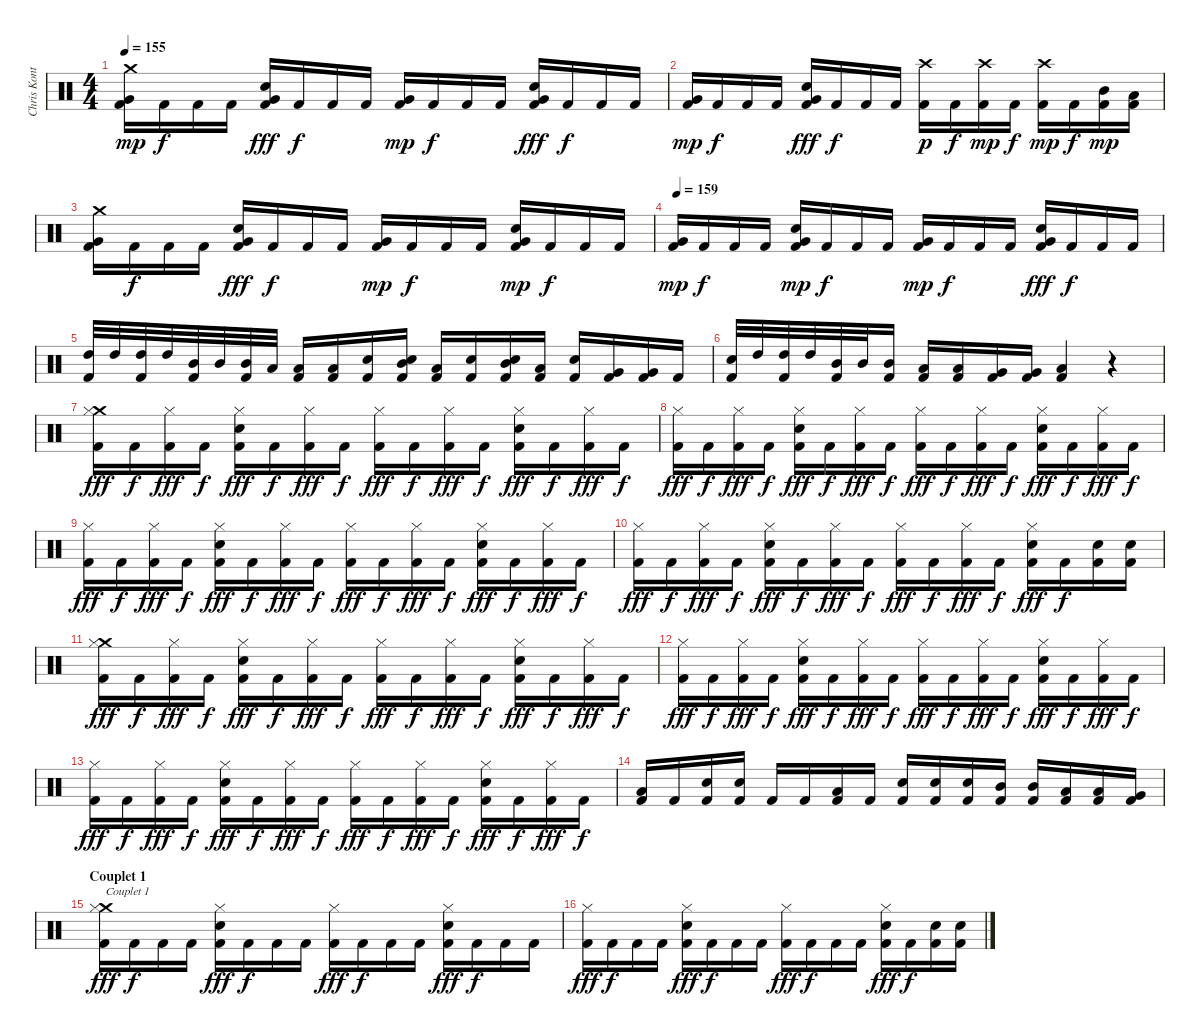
\track ("Chris Kontos" "Chris Kont") {instrument percussion}
\staff {score}
\articulation defaults
\ts (4 4)
\tempo 155
\clef neutral
\ks c
("Crash medium (hit)" "Very Low Tom (hit)" "Kick (hit) 2").16{dy mp} "Kick (hit) 2".16{dy f} "Kick (hit) 2".16 "Kick (hit) 2".16 ("Very Low Tom (hit)" "Electric Snare (hit)" "Kick (hit) 2").16{dy fff} "Kick (hit) 2".16{dy f} "Kick (hit) 2".16 "Kick (hit) 2".16 ("Very Low Tom (hit)" "Kick (hit) 2").16{dy mp} "Kick (hit) 2".16{dy f} "Kick (hit) 2".16 "Kick (hit) 2".16 ("Very Low Tom (hit)" "Electric Snare (hit)" "Kick (hit) 2").16{dy fff} "Kick (hit) 2".16{dy f} "Kick (hit) 2".16 "Kick (hit) 2".16 |
("Very Low Tom (hit)" "Kick (hit) 2").16{dy mp} "Kick (hit) 2".16{dy f} "Kick (hit) 2".16 "Kick (hit) 2".16 ("Very Low Tom (hit)" "Electric Snare (hit)" "Kick (hit) 2").16{dy fff} "Kick (hit) 2".16{dy f} "Kick (hit) 2".16 "Kick (hit) 2".16 ("Crash high (hit)" "Kick (hit) 2").16{dy p} "Kick (hit) 2".16{dy f} ("Crash high (hit)" "Kick (hit) 2").16{dy mp} "Kick (hit) 2".16{dy f} ("Crash high (hit)" "Kick (hit) 2").16{dy mp} "Kick (hit) 2".16{dy f} ("Mid Tom (hit)" "Kick (hit) 2").16{dy mp} ("Low Tom (hit)" "Kick (hit) 2").16 |
("Crash medium (hit)" "Very Low Tom (hit)" "Kick (hit) 2").16 "Kick (hit) 2".16{dy f} "Kick (hit) 2".16 "Kick (hit) 2".16 ("Very Low Tom (hit)" "Electric Snare (hit)" "Kick (hit) 2").16{dy fff} "Kick (hit) 2".16{dy f} "Kick (hit) 2".16 "Kick (hit) 2".16 ("Very Low Tom (hit)" "Kick (hit) 2").16{dy mp} "Kick (hit) 2".16{dy f} "Kick (hit) 2".16 "Kick (hit) 2".16 ("Very Low Tom (hit)" "Electric Snare (hit)" "Kick (hit) 2").16{dy mp} "Kick (hit) 2".16{dy f} "Kick (hit) 2".16 "Kick (hit) 2".16 |
\tempo 159
("Very Low Tom (hit)" "Kick (hit) 2").16{dy mp} "Kick (hit) 2".16{dy f} "Kick (hit) 2".16 "Kick (hit) 2".16 ("Very Low Tom (hit)" "Electric Snare (hit)" "Kick (hit) 2").16{dy mp} "Kick (hit) 2".16{dy f} "Kick (hit) 2".16 "Kick (hit) 2".16 ("Very Low Tom (hit)" "Kick (hit) 2").16{dy mp} "Kick (hit) 2".16{dy f} "Kick (hit) 2".16 "Kick (hit) 2".16 ("Very Low Tom (hit)" "Electric Snare (hit)" "Kick (hit) 2").16{dy fff} "Kick (hit) 2".16{dy f} "Kick (hit) 2".16 "Kick (hit) 2".16 |
("High Tom (hit)" "Kick (hit) 2").32 "High Tom (hit)".32 ("High Tom (hit)" "Kick (hit) 2").32 "High Tom (hit)".32 ("Mid Tom (hit)" "Kick (hit) 2").32 "Mid Tom (hit)".32 ("Mid Tom (hit)" "Kick (hit) 2").32 "Low Tom (hit)".32 ("Low Tom (hit)" "Kick (hit) 2").16 ("Low Tom (hit)" "Kick (hit) 2").16 ("Electric Snare (hit)" "Kick (hit) 2").16 ("Mid Tom (hit)" "Electric Snare (hit)" "Kick (hit) 2").16 ("Low Tom (hit)" "Kick (hit) 2").16 ("Electric Snare (hit)" "Kick (hit) 2").16 ("Mid Tom (hit)" "Electric Snare (hit)" "Kick (hit) 2").16 ("Low Tom (hit)" "Kick (hit) 2").16 ("Electric Snare (hit)" "Kick (hit) 2").16 ("Very Low Tom (hit)" "Kick (hit) 2").16 ("Very Low Tom (hit)" "Kick (hit) 2").16 "Kick (hit) 2".16 |
("Electric Snare (hit)" "Kick (hit) 2").32 "High Tom (hit)".32 ("High Tom (hit)" "Kick (hit) 2").32 "High Tom (hit)".32 ("Mid Tom (hit)" "Kick (hit) 2").32 "Mid Tom (hit)".32 ("Mid Tom (hit)" "Kick (hit) 2").16 ("Low Tom (hit)" "Kick (hit) 2").16 ("Low Tom (hit)" "Kick (hit) 2").16 ("Very Low Tom (hit)" "Kick (hit) 2").16 ("Very Low Tom (hit)" "Kick (hit) 2").16 ("Low Floor Tom (hit)" "Kick (hit) 2").4 r.4 |
("Crash medium (hit)" "Hi-Hat (closed)" "Kick (hit) 2").16{dy fff} "Kick (hit) 2".16{dy f} ("Hi-Hat (closed)" "Kick (hit) 2").16{dy fff} "Kick (hit) 2".16{dy f} ("Electric Snare (hit)" "Hi-Hat (closed)" "Kick (hit) 2").16{dy fff} "Kick (hit) 2".16{dy f} ("Hi-Hat (closed)" "Kick (hit) 2").16{dy fff} "Kick (hit) 2".16{dy f} ("Hi-Hat (closed)" "Kick (hit) 2").16{dy fff} "Kick (hit) 2".16{dy f} ("Hi-Hat (closed)" "Kick (hit) 2").16{dy fff} "Kick (hit) 2".16{dy f} ("Electric Snare (hit)" "Hi-Hat (closed)" "Kick (hit) 2").16{dy fff} "Kick (hit) 2".16{dy f} ("Hi-Hat (closed)" "Kick (hit) 2").16{dy fff} "Kick (hit) 2".16{dy f} |
("Hi-Hat (closed)" "Kick (hit) 2").16{dy fff} "Kick (hit) 2".16{dy f} ("Hi-Hat (closed)" "Kick (hit) 2").16{dy fff} "Kick (hit) 2".16{dy f} ("Electric Snare (hit)" "Hi-Hat (closed)" "Kick (hit) 2").16{dy fff} "Kick (hit) 2".16{dy f} ("Hi-Hat (closed)" "Kick (hit) 2").16{dy fff} "Kick (hit) 2".16{dy f} ("Hi-Hat (closed)" "Kick (hit) 2").16{dy fff} "Kick (hit) 2".16{dy f} ("Hi-Hat (closed)" "Kick (hit) 2").16{dy fff} "Kick (hit) 2".16{dy f} ("Electric Snare (hit)" "Hi-Hat (closed)" "Kick (hit) 2").16{dy fff} "Kick (hit) 2".16{dy f} ("Hi-Hat (closed)" "Kick (hit) 2").16{dy fff} "Kick (hit) 2".16{dy f} |
("Hi-Hat (closed)" "Kick (hit) 2").16{dy fff} "Kick (hit) 2".16{dy f} ("Hi-Hat (closed)" "Kick (hit) 2").16{dy fff} "Kick (hit) 2".16{dy f} ("Electric Snare (hit)" "Hi-Hat (closed)" "Kick (hit) 2").16{dy fff} "Kick (hit) 2".16{dy f} ("Hi-Hat (closed)" "Kick (hit) 2").16{dy fff} "Kick (hit) 2".16{dy f} ("Hi-Hat (closed)" "Kick (hit) 2").16{dy fff} "Kick (hit) 2".16{dy f} ("Hi-Hat (closed)" "Kick (hit) 2").16{dy fff} "Kick (hit) 2".16{dy f} ("Electric Snare (hit)" "Hi-Hat (closed)" "Kick (hit) 2").16{dy fff} "Kick (hit) 2".16{dy f} ("Hi-Hat (closed)" "Kick (hit) 2").16{dy fff} "Kick (hit) 2".16{dy f} |
("Hi-Hat (closed)" "Kick (hit) 2").16{dy fff} "Kick (hit) 2".16{dy f} ("Hi-Hat (closed)" "Kick (hit) 2").16{dy fff} "Kick (hit) 2".16{dy f} ("Electric Snare (hit)" "Hi-Hat (closed)" "Kick (hit) 2").16{dy fff} "Kick (hit) 2".16{dy f} ("Hi-Hat (closed)" "Kick (hit) 2").16{dy fff} "Kick (hit) 2".16{dy f} ("Hi-Hat (closed)" "Kick (hit) 2").16{dy fff} "Kick (hit) 2".16{dy f} ("Hi-Hat (closed)" "Kick (hit) 2").16{dy fff} "Kick (hit) 2".16{dy f} ("Electric Snare (hit)" "Hi-Hat (closed)" "Kick (hit) 2").16{dy fff} "Kick (hit) 2".16{dy f} ("Electric Snare (hit)" "Kick (hit) 2").16 ("Electric Snare (hit)" "Kick (hit) 2").16 |
("Crash medium (hit)" "Hi-Hat (closed)" "Kick (hit) 2").16{dy fff} "Kick (hit) 2".16{dy f} ("Hi-Hat (closed)" "Kick (hit) 2").16{dy fff} "Kick (hit) 2".16{dy f} ("Electric Snare (hit)" "Hi-Hat (closed)" "Kick (hit) 2").16{dy fff} "Kick (hit) 2".16{dy f} ("Hi-Hat (closed)" "Kick (hit) 2").16{dy fff} "Kick (hit) 2".16{dy f} ("Hi-Hat (closed)" "Kick (hit) 2").16{dy fff} "Kick (hit) 2".16{dy f} ("Hi-Hat (closed)" "Kick (hit) 2").16{dy fff} "Kick (hit) 2".16{dy f} ("Electric Snare (hit)" "Hi-Hat (closed)" "Kick (hit) 2").16{dy fff} "Kick (hit) 2".16{dy f} ("Hi-Hat (closed)" "Kick (hit) 2").16{dy fff} "Kick (hit) 2".16{dy f} |
("Hi-Hat (closed)" "Kick (hit) 2").16{dy fff} "Kick (hit) 2".16{dy f} ("Hi-Hat (closed)" "Kick (hit) 2").16{dy fff} "Kick (hit) 2".16{dy f} ("Electric Snare (hit)" "Hi-Hat (closed)" "Kick (hit) 2").16{dy fff} "Kick (hit) 2".16{dy f} ("Hi-Hat (closed)" "Kick (hit) 2").16{dy fff} "Kick (hit) 2".16{dy f} ("Hi-Hat (closed)" "Kick (hit) 2").16{dy fff} "Kick (hit) 2".16{dy f} ("Hi-Hat (closed)" "Kick (hit) 2").16{dy fff} "Kick (hit) 2".16{dy f} ("Electric Snare (hit)" "Hi-Hat (closed)" "Kick (hit) 2").16{dy fff} "Kick (hit) 2".16{dy f} ("Hi-Hat (closed)" "Kick (hit) 2").16{dy fff} "Kick (hit) 2".16{dy f} |
("Hi-Hat (closed)" "Kick (hit) 2").16{dy fff} "Kick (hit) 2".16{dy f} ("Hi-Hat (closed)" "Kick (hit) 2").16{dy fff} "Kick (hit) 2".16{dy f} ("Electric Snare (hit)" "Hi-Hat (closed)" "Kick (hit) 2").16{dy fff} "Kick (hit) 2".16{dy f} ("Hi-Hat (closed)" "Kick (hit) 2").16{dy fff} "Kick (hit) 2".16{dy f} ("Hi-Hat (closed)" "Kick (hit) 2").16{dy fff} "Kick (hit) 2".16{dy f} ("Hi-Hat (closed)" "Kick (hit) 2").16{dy fff} "Kick (hit) 2".16{dy f} ("Electric Snare (hit)" "Hi-Hat (closed)" "Kick (hit) 2").16{dy fff} "Kick (hit) 2".16{dy f} ("Hi-Hat (closed)" "Kick (hit) 2").16{dy fff} "Kick (hit) 2".16{dy f} |
("Low Tom (hit)" "Kick (hit) 2").16 "Kick (hit) 2".16 ("Electric Snare (hit)" "Kick (hit) 2").16 ("Electric Snare (hit)" "Kick (hit) 2").16 "Kick (hit) 2".16 "Kick (hit) 2".16 ("Low Tom (hit)" "Kick (hit) 2").16 "Kick (hit) 2".16 ("Electric Snare (hit)" "Kick (hit) 2").16 ("Electric Snare (hit)" "Kick (hit) 2").16 ("Electric Snare (hit)" "Kick (hit) 2").16 ("Mid Tom (hit)" "Kick (hit) 2").16 ("Mid Tom (hit)" "Kick (hit) 2").16 ("Low Tom (hit)" "Kick (hit) 2").16 ("Low Tom (hit)" "Kick (hit) 2").16 ("Very Low Tom (hit)" "Kick (hit) 2").16 |
\section ("" "Couplet 1")
("Crash medium (hit)" "Hi-Hat (closed)" "Kick (hit) 2").16{txt "Couplet 1" dy fff} "Kick (hit) 2".16{dy f} "Kick (hit) 2".16 "Kick (hit) 2".16 ("Electric Snare (hit)" "Hi-Hat (closed)" "Kick (hit) 2").16{dy fff} "Kick (hit) 2".16{dy f} "Kick (hit) 2".16 "Kick (hit) 2".16 ("Hi-Hat (closed)" "Kick (hit) 2").16{dy fff} "Kick (hit) 2".16{dy f} "Kick (hit) 2".16 "Kick (hit) 2".16 ("Electric Snare (hit)" "Hi-Hat (closed)" "Kick (hit) 2").16{dy fff} "Kick (hit) 2".16{dy f} "Kick (hit) 2".16 "Kick (hit) 2".16 |
("Hi-Hat (closed)" "Kick (hit) 2").16{dy fff} "Kick (hit) 2".16{dy f} "Kick (hit) 2".16 "Kick (hit) 2".16 ("Electric Snare (hit)" "Hi-Hat (closed)" "Kick (hit) 2").16{dy fff} "Kick (hit) 2".16{dy f} "Kick (hit) 2".16 "Kick (hit) 2".16 ("Hi-Hat (closed)" "Kick (hit) 2").16{dy fff} "Kick (hit) 2".16{dy f} "Kick (hit) 2".16 "Kick (hit) 2".16 ("Electric Snare (hit)" "Hi-Hat (closed)" "Kick (hit) 2").16{dy fff} "Kick (hit) 2".16{dy f} ("Electric Snare (hit)" "Kick (hit) 2").16 ("Electric Snare (hit)" "Kick (hit) 2").16
